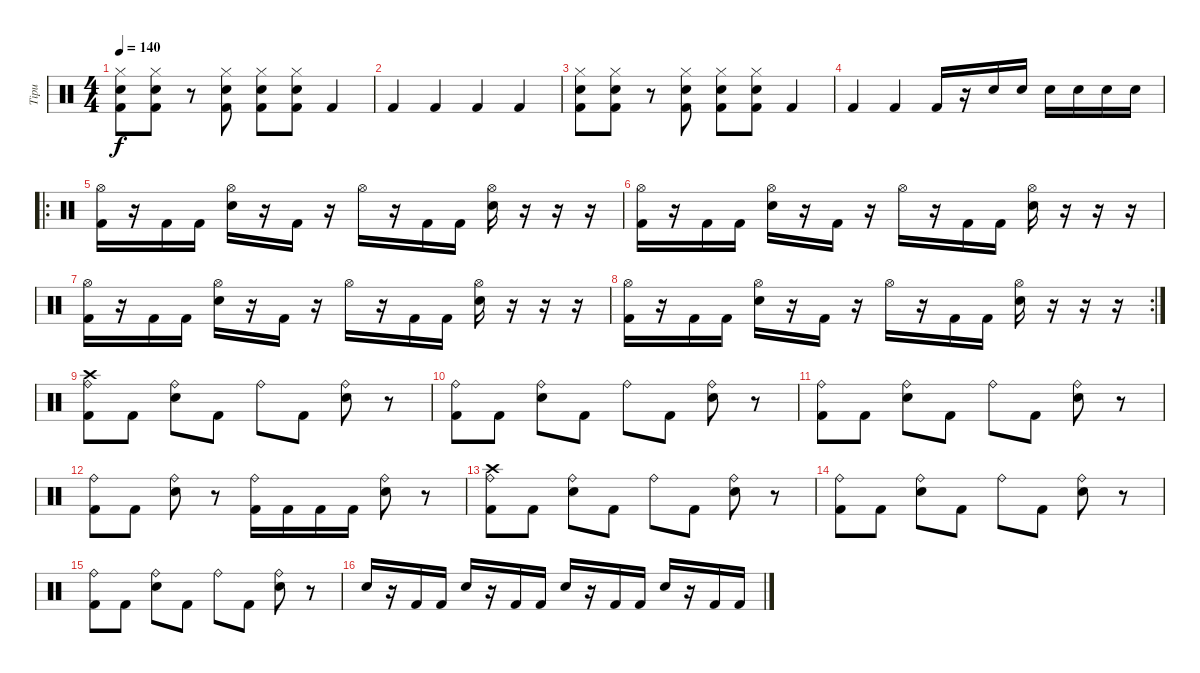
\track ("Tipu" "Tipu") {instrument percussion}
\staff {score}
\articulation defaults
\ts (4 4)
\tempo 140
\clef neutral
\ks c
("Hi-Hat (closed)" "Kick (hit) 2" "Electric Snare (hit)").8{dy f} ("Hi-Hat (closed)" "Kick (hit) 2" "Electric Snare (hit)").8 r.8 ("Hi-Hat (closed)" "Kick (hit) 2" "Electric Snare (hit)").8 ("Hi-Hat (closed)" "Kick (hit) 2" "Electric Snare (hit)").8 ("Hi-Hat (closed)" "Kick (hit) 2" "Electric Snare (hit)").8 "Kick (hit) 2".4 |
"Kick (hit) 2".4 "Kick (hit) 2".4 "Kick (hit) 2".4 "Kick (hit) 2".4 |
("Hi-Hat (closed)" "Kick (hit) 2" "Electric Snare (hit)").8 ("Hi-Hat (closed)" "Kick (hit) 2" "Electric Snare (hit)").8 r.8 ("Hi-Hat (closed)" "Kick (hit) 2" "Electric Snare (hit)").8 ("Hi-Hat (closed)" "Kick (hit) 2" "Electric Snare (hit)").8 ("Hi-Hat (closed)" "Kick (hit) 2" "Electric Snare (hit)").8 "Kick (hit) 2".4 |
"Kick (hit) 2".4 "Kick (hit) 2".4 "Kick (hit) 2".16 r.16 "Electric Snare (hit)".16 "Electric Snare (hit)".16 "Electric Snare (hit)".16 "Electric Snare (hit)".16 "Electric Snare (hit)".16 "Electric Snare (hit)".16 |
\ro
("Hi-Hat (open)" "Kick (hit) 2").16 r.16 "Kick (hit) 2".16 "Kick (hit) 2".16 ("Hi-Hat (open)" "Electric Snare (hit)").16 r.16 "Kick (hit) 2".16 r.16 "Hi-Hat (open)".16 r.16 "Kick (hit) 2".16 "Kick (hit) 2".16 ("Hi-Hat (open)" "Electric Snare (hit)").16 r.16 r.16 r.16 |
("Hi-Hat (open)" "Kick (hit) 2").16 r.16 "Kick (hit) 2".16 "Kick (hit) 2".16 ("Hi-Hat (open)" "Electric Snare (hit)").16 r.16 "Kick (hit) 2".16 r.16 "Hi-Hat (open)".16 r.16 "Kick (hit) 2".16 "Kick (hit) 2".16 ("Hi-Hat (open)" "Electric Snare (hit)").16 r.16 r.16 r.16 |
("Hi-Hat (open)" "Kick (hit) 2").16 r.16 "Kick (hit) 2".16 "Kick (hit) 2".16 ("Hi-Hat (open)" "Electric Snare (hit)").16 r.16 "Kick (hit) 2".16 r.16 "Hi-Hat (open)".16 r.16 "Kick (hit) 2".16 "Kick (hit) 2".16 ("Hi-Hat (open)" "Electric Snare (hit)").16 r.16 r.16 r.16 |
\rc 2
("Hi-Hat (open)" "Kick (hit) 2").16 r.16 "Kick (hit) 2".16 "Kick (hit) 2".16 ("Hi-Hat (open)" "Electric Snare (hit)").16 r.16 "Kick (hit) 2".16 r.16 "Hi-Hat (open)".16 r.16 "Kick (hit) 2".16 "Kick (hit) 2".16 ("Hi-Hat (open)" "Electric Snare (hit)").16 r.16 r.16 r.16 |
("Crash high (hit)" "Ride (bell)" "Kick (hit) 2").8 "Kick (hit) 2".8 ("Ride (bell)" "Electric Snare (hit)").8 "Kick (hit) 2".8 "Ride (bell)".8 "Kick (hit) 2".8 ("Ride (bell)" "Electric Snare (hit)").8 r.8 |
("Ride (bell)" "Kick (hit) 2").8 "Kick (hit) 2".8 ("Ride (bell)" "Electric Snare (hit)").8 "Kick (hit) 2".8 "Ride (bell)".8 "Kick (hit) 2".8 ("Ride (bell)" "Electric Snare (hit)").8 r.8 |
("Ride (bell)" "Kick (hit) 2").8 "Kick (hit) 2".8 ("Ride (bell)" "Electric Snare (hit)").8 "Kick (hit) 2".8 "Ride (bell)".8 "Kick (hit) 2".8 ("Ride (bell)" "Electric Snare (hit)").8 r.8 |
("Ride (bell)" "Kick (hit) 2").8 "Kick (hit) 2".8 ("Ride (bell)" "Electric Snare (hit)").8 r.8 ("Ride (bell)" "Kick (hit) 2").16 "Kick (hit) 2".16 "Kick (hit) 2".16 "Kick (hit) 2".16 ("Ride (bell)" "Electric Snare (hit)").8 r.8 |
("Crash high (hit)" "Ride (bell)" "Kick (hit) 2").8 "Kick (hit) 2".8 ("Ride (bell)" "Electric Snare (hit)").8 "Kick (hit) 2".8 "Ride (bell)".8 "Kick (hit) 2".8 ("Ride (bell)" "Electric Snare (hit)").8 r.8 |
("Ride (bell)" "Kick (hit) 2").8 "Kick (hit) 2".8 ("Ride (bell)" "Electric Snare (hit)").8 "Kick (hit) 2".8 "Ride (bell)".8 "Kick (hit) 2".8 ("Ride (bell)" "Electric Snare (hit)").8 r.8 |
("Ride (bell)" "Kick (hit) 2").8 "Kick (hit) 2".8 ("Ride (bell)" "Electric Snare (hit)").8 "Kick (hit) 2".8 "Ride (bell)".8 "Kick (hit) 2".8 ("Ride (bell)" "Electric Snare (hit)").8 r.8 |
"Electric Snare (hit)".16 r.16 "Kick (hit) 2".16 "Kick (hit) 2".16 "Electric Snare (hit)".16 r.16 "Kick (hit) 2".16 "Kick (hit) 2".16 "Electric Snare (hit)".16 r.16 "Kick (hit) 2".16 "Kick (hit) 2".16 "Electric Snare (hit)".16 r.16 "Kick (hit) 2".16 "Kick (hit) 2".16
